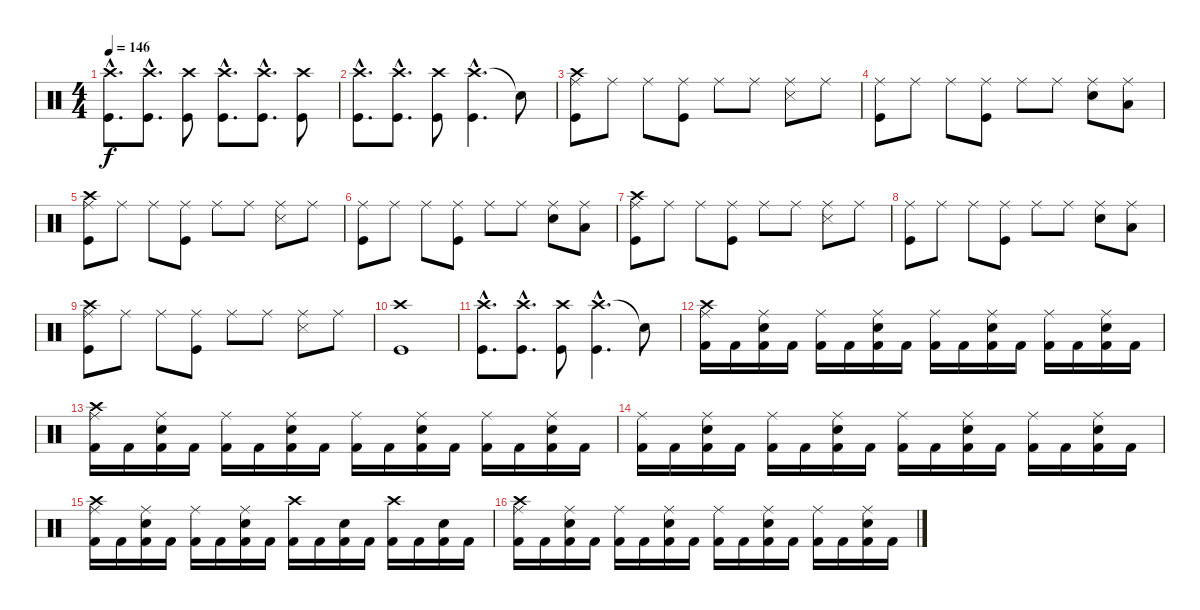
\track "" {instrument percussion}
\staff {score}
\articulation defaults
\ts (4 4)
\tempo 146
\clef neutral
\ks c
("Crash high (hit)"{hac} "Kick (hit)"{hac}).8{d dy f} ("Crash high (hit)"{hac} "Kick (hit)"{hac}).8{d} ("Crash high (hit)" "Kick (hit)").8 ("Crash high (hit)"{hac} "Kick (hit)"{hac}).8{d} ("Crash high (hit)"{hac} "Kick (hit)"{hac}).8{d} ("Crash high (hit)" "Kick (hit)").8 |
("Crash high (hit)"{hac} "Kick (hit)"{hac}).8{d} ("Crash high (hit)"{hac} "Kick (hit)"{hac}).8{d} ("Crash high (hit)" "Kick (hit)").8 ("Crash high (hit)"{hac} "Kick (hit)"{hac}).4{d} "Snare (hit)"{t}.8 |
("Ride (middle)" "Crash high (hit)" "Kick (hit)").8 "Ride (middle)".8 "Ride (middle)".8 ("Ride (middle)" "Kick (hit)").8 "Ride (middle)".8 "Ride (middle)".8 ("Ride (middle)" "Snare (side stick) 3").8 "Ride (middle)".8 |
("Ride (middle)" "Kick (hit)").8 "Ride (middle)".8 "Ride (middle)".8 ("Ride (middle)" "Kick (hit)").8 "Ride (middle)".8 "Ride (middle)".8 ("Ride (middle)" "Snare (hit) 2").8 ("Ride (middle)" "Low Tom (hit)").8 |
("Ride (middle)" "Crash high (hit)" "Kick (hit)").8 "Ride (middle)".8 "Ride (middle)".8 ("Ride (middle)" "Kick (hit)").8 "Ride (middle)".8 "Ride (middle)".8 ("Ride (middle)" "Snare (side stick) 3").8 "Ride (middle)".8 |
("Ride (middle)" "Kick (hit)").8 "Ride (middle)".8 "Ride (middle)".8 ("Ride (middle)" "Kick (hit)").8 "Ride (middle)".8 "Ride (middle)".8 ("Ride (middle)" "Snare (hit) 2").8 ("Ride (middle)" "Low Tom (hit)").8 |
("Ride (middle)" "Crash high (hit)" "Kick (hit)").8 "Ride (middle)".8 "Ride (middle)".8 ("Ride (middle)" "Kick (hit)").8 "Ride (middle)".8 "Ride (middle)".8 ("Ride (middle)" "Snare (side stick) 3").8 "Ride (middle)".8 |
("Ride (middle)" "Kick (hit)").8 "Ride (middle)".8 "Ride (middle)".8 ("Ride (middle)" "Kick (hit)").8 "Ride (middle)".8 "Ride (middle)".8 ("Ride (middle)" "Snare (hit) 2").8 ("Ride (middle)" "Low Tom (hit)").8 |
("Ride (middle)" "Crash high (hit)" "Kick (hit)").8 "Ride (middle)".8 "Ride (middle)".8 ("Ride (middle)" "Kick (hit)").8 "Ride (middle)".8 "Ride (middle)".8 ("Ride (middle)" "Snare (side stick) 3").8 "Ride (middle)".8 |
("Crash high (hit)" "Kick (hit)").1 |
("Crash high (hit)"{hac} "Kick (hit)"{hac}).8{d} ("Crash high (hit)"{hac} "Kick (hit)"{hac}).8{d} ("Crash high (hit)" "Kick (hit)").8 ("Crash high (hit)"{hac} "Kick (hit)"{hac}).4{d} "Snare (hit)"{t}.8 |
("Crash high (hit)" "Ride (middle)" "Kick (hit) 2").16 "Kick (hit) 2".16 ("Electric Snare (hit)" "Ride (middle)" "Kick (hit) 2").16 "Kick (hit) 2".16 ("Ride (middle)" "Kick (hit) 2").16 "Kick (hit) 2".16 ("Electric Snare (hit)" "Ride (middle)" "Kick (hit) 2").16 "Kick (hit) 2".16 ("Ride (middle)" "Kick (hit) 2").16 "Kick (hit) 2".16 ("Electric Snare (hit)" "Ride (middle)" "Kick (hit) 2").16 "Kick (hit) 2".16 ("Ride (middle)" "Kick (hit) 2").16 "Kick (hit) 2".16 ("Electric Snare (hit)" "Ride (middle)" "Kick (hit) 2").16 "Kick (hit) 2".16 |
("Crash high (hit)" "Ride (middle)" "Kick (hit) 2").16 "Kick (hit) 2".16 ("Electric Snare (hit)" "Ride (middle)" "Kick (hit) 2").16 "Kick (hit) 2".16 ("Ride (middle)" "Kick (hit) 2").16 "Kick (hit) 2".16 ("Electric Snare (hit)" "Ride (middle)" "Kick (hit) 2").16 "Kick (hit) 2".16 ("Ride (middle)" "Kick (hit) 2").16 "Kick (hit) 2".16 ("Electric Snare (hit)" "Ride (middle)" "Kick (hit) 2").16 "Kick (hit) 2".16 ("Ride (middle)" "Kick (hit) 2").16 "Kick (hit) 2".16 ("Electric Snare (hit)" "Ride (middle)" "Kick (hit) 2").16 "Kick (hit) 2".16 |
("Ride (middle)" "Kick (hit) 2").16 "Kick (hit) 2".16 ("Electric Snare (hit)" "Ride (middle)" "Kick (hit) 2").16 "Kick (hit) 2".16 ("Ride (middle)" "Kick (hit) 2").16 "Kick (hit) 2".16 ("Electric Snare (hit)" "Ride (middle)" "Kick (hit) 2").16 "Kick (hit) 2".16 ("Ride (middle)" "Kick (hit) 2").16 "Kick (hit) 2".16 ("Electric Snare (hit)" "Ride (middle)" "Kick (hit) 2").16 "Kick (hit) 2".16 ("Ride (middle)" "Kick (hit) 2").16 "Kick (hit) 2".16 ("Electric Snare (hit)" "Ride (middle)" "Kick (hit) 2").16 "Kick (hit) 2".16 |
("Crash high (hit)" "Ride (middle)" "Kick (hit) 2").16 "Kick (hit) 2".16 ("Electric Snare (hit)" "Ride (middle)" "Kick (hit) 2").16 "Kick (hit) 2".16 ("Ride (middle)" "Kick (hit) 2").16 "Kick (hit) 2".16 ("Electric Snare (hit)" "Ride (middle)" "Kick (hit) 2").16 "Kick (hit) 2".16 ("Kick (hit) 2" "Crash high (hit)").16 "Kick (hit) 2".16 ("Electric Snare (hit)" "Kick (hit) 2").16 "Kick (hit) 2".16 ("Kick (hit) 2" "Crash high (hit)").16 "Kick (hit) 2".16 ("Electric Snare (hit)" "Kick (hit) 2").16 "Kick (hit) 2".16 |
("Crash high (hit)" "Ride (middle)" "Kick (hit) 2").16 "Kick (hit) 2".16 ("Electric Snare (hit)" "Ride (middle)" "Kick (hit) 2").16 "Kick (hit) 2".16 ("Ride (middle)" "Kick (hit) 2").16 "Kick (hit) 2".16 ("Electric Snare (hit)" "Ride (middle)" "Kick (hit) 2").16 "Kick (hit) 2".16 ("Ride (middle)" "Kick (hit) 2").16 "Kick (hit) 2".16 ("Electric Snare (hit)" "Ride (middle)" "Kick (hit) 2").16 "Kick (hit) 2".16 ("Ride (middle)" "Kick (hit) 2").16 "Kick (hit) 2".16 ("Electric Snare (hit)" "Ride (middle)" "Kick (hit) 2").16 "Kick (hit) 2".16
